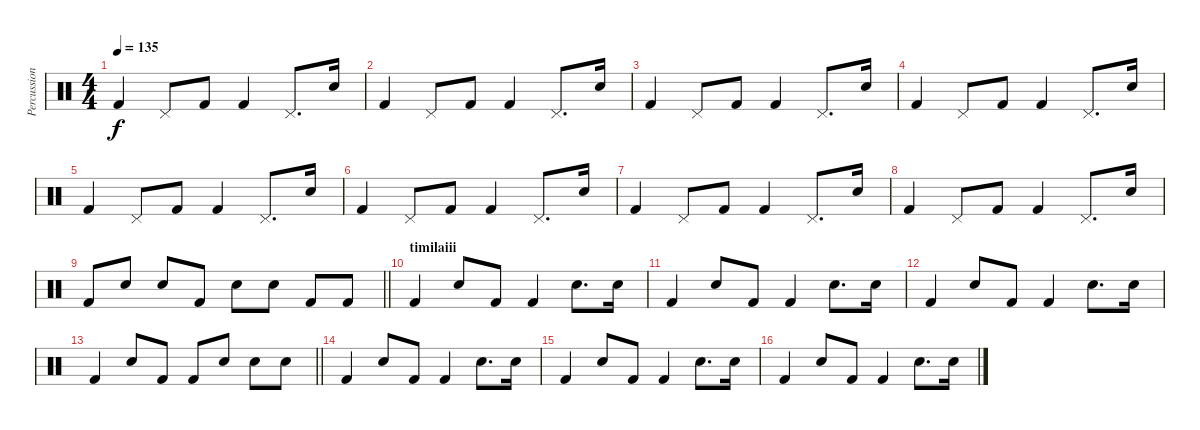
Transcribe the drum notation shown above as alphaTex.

\track ("Percussion" "Percussion") {instrument percussion}
\staff {score}
\articulation defaults
\ts (4 4)
\tempo 135
\clef neutral
\ks c "Kick (hit) 2".4{dy f} "Pedal Hi-Hat (hit)".8 "Kick (hit) 2".8 "Kick (hit) 2".4 "Pedal Hi-Hat (hit)".8{d} "Snare (hit)".16
|
"Kick (hit) 2".4 "Pedal Hi-Hat (hit)".8 "Kick (hit) 2".8 "Kick (hit) 2".4 "Pedal Hi-Hat (hit)".8{d} "Snare (hit)".16 |
"Kick (hit) 2".4 "Pedal Hi-Hat (hit)".8 "Kick (hit) 2".8 "Kick (hit) 2".4 "Pedal Hi-Hat (hit)".8{d} "Snare (hit)".16 |
"Kick (hit) 2".4 "Pedal Hi-Hat (hit)".8 "Kick (hit) 2".8 "Kick (hit) 2".4 "Pedal Hi-Hat (hit)".8{d} "Snare (hit)".16 |
"Kick (hit) 2".4 "Pedal Hi-Hat (hit)".8 "Kick (hit) 2".8 "Kick (hit) 2".4 "Pedal Hi-Hat (hit)".8{d} "Snare (hit)".16 |
"Kick (hit) 2".4 "Pedal Hi-Hat (hit)".8 "Kick (hit) 2".8 "Kick (hit) 2".4 "Pedal Hi-Hat (hit)".8{d} "Snare (hit)".16 |
"Kick (hit) 2".4 "Pedal Hi-Hat (hit)".8 "Kick (hit) 2".8 "Kick (hit) 2".4 "Pedal Hi-Hat (hit)".8{d} "Snare (hit)".16 |
"Kick (hit) 2".4 "Pedal Hi-Hat (hit)".8 "Kick (hit) 2".8 "Kick (hit) 2".4 "Pedal Hi-Hat (hit)".8{d} "Snare (hit)".16 |
\barLineRight lightlight "Kick (hit) 2".8 "Electric Snare (hit)".8 "Electric Snare (hit)".8 "Kick (hit) 2".8 "Electric Snare (hit)".8 "Electric Snare (hit)".8 "Kick (hit) 2".8 "Kick (hit) 2".8
|
\section ("" "timilaiii")
"Kick (hit) 2".4 "Electric Snare (hit)".8 "Kick (hit) 2".8 "Kick (hit) 2".4 "Electric Snare (hit)".8{d} "Snare (hit)".16 |
"Kick (hit) 2".4 "Electric Snare (hit)".8 "Kick (hit) 2".8 "Kick (hit) 2".4 "Electric Snare (hit)".8{d} "Snare (hit)".16 |
"Kick (hit) 2".4 "Electric Snare (hit)".8 "Kick (hit) 2".8 "Kick (hit) 2".4 "Electric Snare (hit)".8{d} "Snare (hit)".16 |
\barLineRight lightlight "Kick (hit) 2".4 "Electric Snare (hit)".8 "Kick (hit) 2".8 "Kick (hit) 2".8 "Electric Snare (hit)".8 "Electric Snare (hit)".8 "Snare (hit)".8
|
"Kick (hit) 2".4 "Electric Snare (hit)".8 "Kick (hit) 2".8 "Kick (hit) 2".4 "Electric Snare (hit)".8{d} "Snare (hit)".16 |
"Kick (hit) 2".4 "Electric Snare (hit)".8 "Kick (hit) 2".8 "Kick (hit) 2".4 "Electric Snare (hit)".8{d} "Snare (hit)".16 |
"Kick (hit) 2".4 "Electric Snare (hit)".8 "Kick (hit) 2".8 "Kick (hit) 2".4 "Electric Snare (hit)".8{d} "Snare (hit)".16
